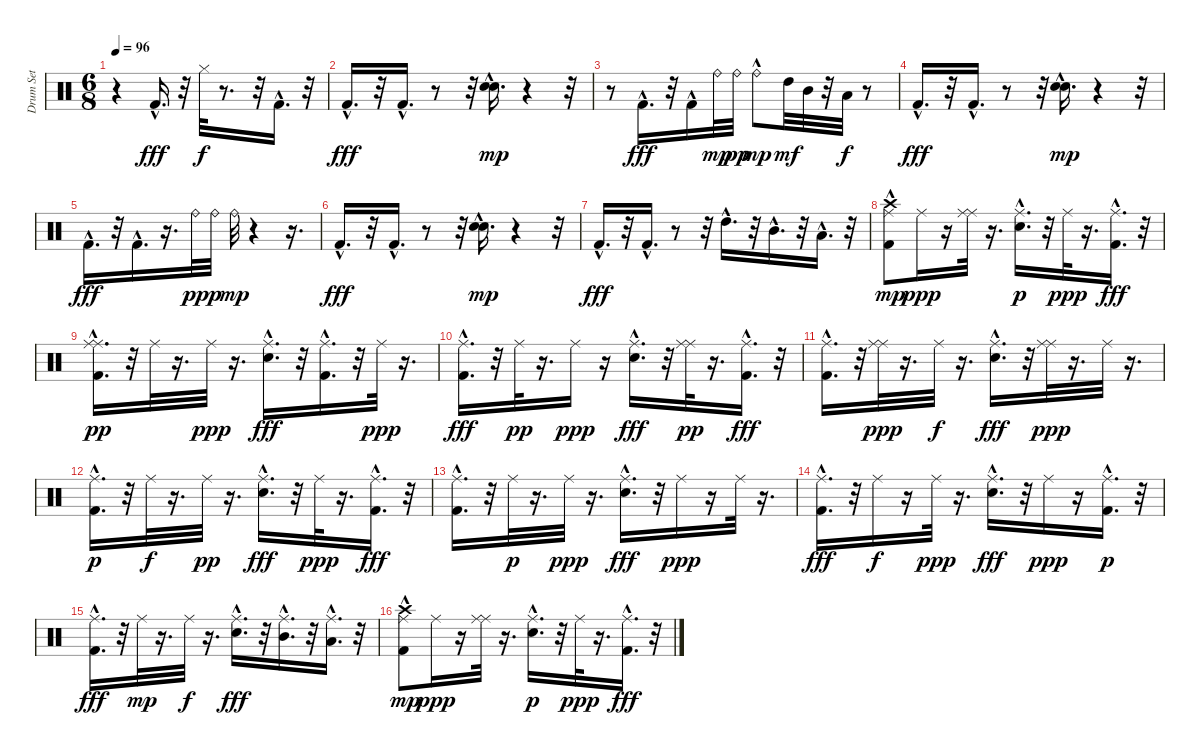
\track ("Drum Set" "Drum Set") {instrument percussion}
\staff {score}
\articulation defaults
\ts (6 8)
\tempo 96
\clef neutral
\ks c
r.4{dy mp} "Kick (hit) 2"{hac}.16{d dy fff} r.32 "Hi-Hat (closed)".32{dy f} r.8{d} r.32 "Kick (hit) 2"{hac}.16{d} r.32 |
"Kick (hit) 2"{hac}.16{d dy fff} r.32 "Kick (hit) 2"{hac}.16{d} r.8 r.32 ("Snare (hit) 2"{hac} "Electric Snare (hit)"{hac}).16{d dy mp} r.4 r.32 |
r.8 "Kick (hit) 2"{hac}.16{d dy fff} r.32 "Kick (hit) 2"{hac}.16 "Ride (bell)".32{dy mp} "Ride (bell)".32{dy pp} "Ride (bell)"{hac}.8{dy mp} "High Tom (hit)".32{dy mf} "Mid Tom (hit)".32 r.32 "Low Tom (hit)".32{dy f} r.8 |
"Kick (hit) 2"{hac}.16{d dy fff} r.32 "Kick (hit) 2"{hac}.16{d} r.8 r.32 ("Snare (hit) 2"{hac} "Electric Snare (hit)"{hac}).16{d dy mp} r.4 r.32 |
"Kick (hit) 2"{hac}.16{d dy fff} r.32 "Kick (hit) 2"{hac}.16{d} r.16{d} "Ride (bell)".32{dy pp} "Ride (bell)".32{dy p} "Ride (bell)".32{dy mp} r.4 r.16{d} |
"Kick (hit) 2"{hac}.16{d dy fff} r.32 "Kick (hit) 2"{hac}.16{d} r.8 r.32 ("Snare (hit) 2"{hac} "Electric Snare (hit)"{hac}).16{d dy mp} r.4 r.32 |
"Kick (hit) 2"{hac}.16{d dy fff} r.32 "Kick (hit) 2"{hac}.16{d} r.8 r.32 "High Tom (hit)"{hac}.16{d} r.32 "Mid Tom (hit)"{hac}.16{d} r.32 "Low Tom (hit)"{hac}.16{d} r.32 |
("Crash high (hit)" "Kick (hit) 2"{hac} "Ride (middle)").8{dy mp} "Ride (middle)".16{dy ppp} r.16 ("Ride (middle)" "Ride (middle)").32 r.16{d} ("Snare (hit) 2"{hac} "Ride (middle)"{hac}).16{d dy p} r.32 "Ride (middle)".32{dy ppp} r.16{d} ("Ride (middle)" "Kick (hit) 2"{hac}).16{d dy fff} r.32 |
("Ride (middle)" "Kick (hit) 2"{hac} "Ride (middle)").16{d dy pp} r.32 "Ride (middle)".32 r.16{d} "Ride (middle)".32{dy ppp} r.16{d} ("Ride (middle)" "Snare (hit) 2"{hac}).16{d dy fff} r.32 ("Ride (middle)" "Kick (hit) 2"{hac}).16{d} r.32 "Ride (middle)".32{dy ppp} r.16{d} |
("Ride (middle)" "Kick (hit) 2"{hac}).16{d dy fff} r.32 "Ride (middle)".32{dy pp} r.16{d} "Ride (middle)".16{dy ppp} r.16 ("Ride (middle)" "Snare (hit) 2"{hac}).16{d dy fff} r.32 ("Ride (middle)" "Ride (middle)").32{dy pp} r.16{d} ("Ride (middle)" "Kick (hit) 2"{hac}).16{d dy fff} r.32 |
("Ride (middle)" "Kick (hit) 2"{hac}).16{d} r.32 ("Ride (middle)" "Ride (middle)").32{dy ppp} r.16{d} "Ride (middle)".32{dy f} r.16{d} ("Ride (middle)" "Snare (hit) 2"{hac}).16{d dy fff} r.32 ("Ride (middle)" "Ride (middle)").32{dy ppp} r.16{d} "Ride (middle)".32 r.16{d} |
("Kick (hit) 2"{hac} "Ride (middle)").16{d dy p} r.32 "Ride (middle)".32{dy f} r.16{d} "Ride (middle)".32{dy pp} r.16{d} ("Ride (middle)" "Snare (hit) 2"{hac}).16{d dy fff} r.32 "Ride (middle)".32{dy ppp} r.16{d} ("Ride (middle)" "Kick (hit) 2"{hac}).16{d dy fff} r.32 |
("Ride (middle)" "Kick (hit) 2"{hac}).16{d} r.32 "Ride (middle)".32{dy p} r.16{d} "Ride (middle)".32{dy ppp} r.16{d} ("Ride (middle)" "Snare (hit) 2"{hac}).16{d dy fff} r.32 "Ride (middle)".16{dy ppp} r.16 "Ride (middle)".32 r.16{d} |
("Ride (middle)" "Kick (hit) 2"{hac}).16{d dy fff} r.32 "Ride (middle)".16{dy f} r.16 "Ride (middle)".32{dy ppp} r.16{d} ("Ride (middle)" "Snare (hit) 2"{hac}).16{d dy fff} r.32 "Ride (middle)".16{dy ppp} r.16 ("Kick (hit) 2"{hac} "Ride (middle)").16{d dy p} r.32 |
("Ride (middle)" "Kick (hit) 2"{hac}).16{d dy fff} r.32 "Ride (middle)".32{dy mp} r.16{d} "Ride (middle)".32{dy f} r.16{d} ("Ride (middle)" "Snare (hit) 2"{hac}).16{d dy fff} r.32 ("Ride (middle)" "Mid Tom (hit)"{hac}).16{d} r.32 ("Ride (middle)" "Low Tom (hit)"{hac}).16{d} r.32 |
("Crash high (hit)" "Kick (hit) 2"{hac} "Ride (middle)").8{dy mp} "Ride (middle)".16{dy ppp} r.16 ("Ride (middle)" "Ride (middle)").32 r.16{d} ("Snare (hit) 2"{hac} "Ride (middle)"{hac}).16{d dy p} r.32 "Ride (middle)".32{dy ppp} r.16{d} ("Ride (middle)" "Kick (hit) 2"{hac}).16{d dy fff} r.32
